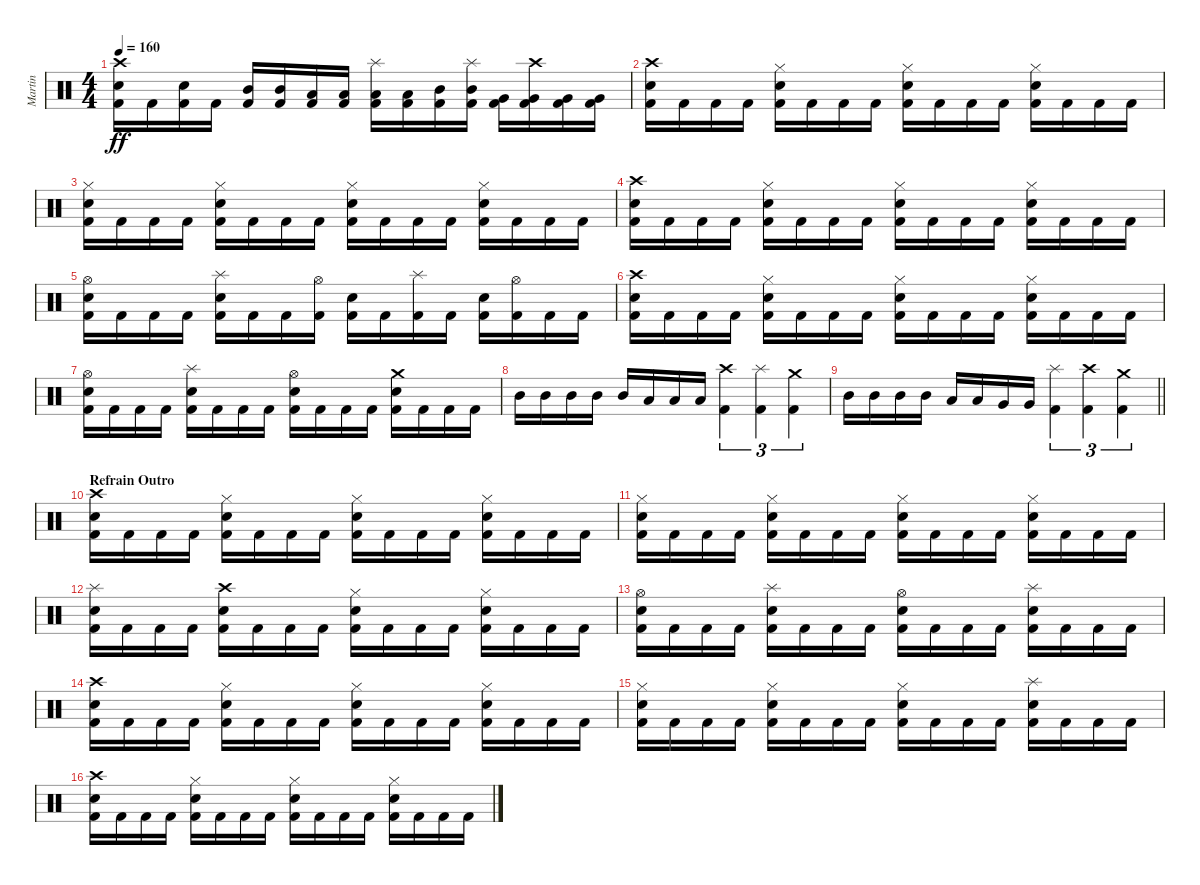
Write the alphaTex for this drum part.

\track ("Martin" "Martin") {instrument percussion}
\staff {score}
\articulation defaults
\ts (4 4)
\tempo 160
\clef neutral
\ks c
("Crash high (hit)" "Electric Snare (hit)" "Kick (hit) 2").16{dy ff} "Kick (hit) 2".16 ("Electric Snare (hit)" "Kick (hit) 2").16 "Kick (hit) 2".16 ("Mid Tom (hit)" "Kick (hit) 2").16 ("Mid Tom (hit)" "Kick (hit) 2").16 ("Low Tom (hit)" "Kick (hit) 2").16 ("Low Tom (hit)" "Kick (hit) 2").16 ("Splash (hit)" "Low Tom (hit)" "Kick (hit) 2").16 ("Low Tom (hit)" "Kick (hit) 2").16 ("Mid Tom (hit)" "Kick (hit) 2").16 ("Splash (hit)" "Mid Tom (hit)" "Kick (hit) 2").16 ("Very Low Tom (hit)" "Kick (hit) 2").16 ("Crash high (hit)" "Very Low Tom (hit)" "Kick (hit) 2").16 ("Very Low Tom (hit)" "Kick (hit) 2").16 ("Very Low Tom (hit)" "Kick (hit) 2").16 |
("Crash high (hit)" "Electric Snare (hit)" "Kick (hit) 2").16 "Kick (hit) 2".16 "Kick (hit) 2".16 "Kick (hit) 2".16 ("Hi-Hat (closed)" "Electric Snare (hit)" "Kick (hit) 2").16 "Kick (hit) 2".16 "Kick (hit) 2".16 "Kick (hit) 2".16 ("Hi-Hat (closed)" "Electric Snare (hit)" "Kick (hit) 2").16 "Kick (hit) 2".16 "Kick (hit) 2".16 "Kick (hit) 2".16 ("Hi-Hat (closed)" "Electric Snare (hit)" "Kick (hit) 2").16 "Kick (hit) 2".16 "Kick (hit) 2".16 "Kick (hit) 2".16 |
("Hi-Hat (closed)" "Electric Snare (hit)" "Kick (hit) 2").16 "Kick (hit) 2".16 "Kick (hit) 2".16 "Kick (hit) 2".16 ("Hi-Hat (closed)" "Electric Snare (hit)" "Kick (hit) 2").16 "Kick (hit) 2".16 "Kick (hit) 2".16 "Kick (hit) 2".16 ("Hi-Hat (closed)" "Electric Snare (hit)" "Kick (hit) 2").16 "Kick (hit) 2".16 "Kick (hit) 2".16 "Kick (hit) 2".16 ("Hi-Hat (closed)" "Electric Snare (hit)" "Kick (hit) 2").16 "Kick (hit) 2".16 "Kick (hit) 2".16 "Kick (hit) 2".16 |
("Crash high (hit)" "Electric Snare (hit)" "Kick (hit) 2").16 "Kick (hit) 2".16 "Kick (hit) 2".16 "Kick (hit) 2".16 ("Hi-Hat (closed)" "Electric Snare (hit)" "Kick (hit) 2").16 "Kick (hit) 2".16 "Kick (hit) 2".16 "Kick (hit) 2".16 ("Hi-Hat (closed)" "Electric Snare (hit)" "Kick (hit) 2").16 "Kick (hit) 2".16 "Kick (hit) 2".16 "Kick (hit) 2".16 ("Hi-Hat (closed)" "Electric Snare (hit)" "Kick (hit) 2").16 "Kick (hit) 2".16 "Kick (hit) 2".16 "Kick (hit) 2".16 |
("Hi-Hat (open)" "Electric Snare (hit)" "Kick (hit) 2").16 "Kick (hit) 2".16 "Kick (hit) 2".16 "Kick (hit) 2".16 ("Splash (hit)" "Electric Snare (hit)" "Kick (hit) 2").16 "Kick (hit) 2".16 "Kick (hit) 2".16 ("Hi-Hat (open)" "Kick (hit) 2").16 ("Electric Snare (hit)" "Kick (hit) 2").16 "Kick (hit) 2".16 ("Splash (hit)" "Kick (hit) 2").16 "Kick (hit) 2".16 ("Electric Snare (hit)" "Kick (hit) 2").16 ("Hi-Hat (open)" "Kick (hit) 2").16 "Kick (hit) 2".16 "Kick (hit) 2".16 |
("Crash high (hit)" "Electric Snare (hit)" "Kick (hit) 2").16 "Kick (hit) 2".16 "Kick (hit) 2".16 "Kick (hit) 2".16 ("Hi-Hat (closed)" "Electric Snare (hit)" "Kick (hit) 2").16 "Kick (hit) 2".16 "Kick (hit) 2".16 "Kick (hit) 2".16 ("Hi-Hat (closed)" "Electric Snare (hit)" "Kick (hit) 2").16 "Kick (hit) 2".16 "Kick (hit) 2".16 "Kick (hit) 2".16 ("Hi-Hat (closed)" "Electric Snare (hit)" "Kick (hit) 2").16 "Kick (hit) 2".16 "Kick (hit) 2".16 "Kick (hit) 2".16 |
("Hi-Hat (open)" "Electric Snare (hit)" "Kick (hit) 2").16 "Kick (hit) 2".16 "Kick (hit) 2".16 "Kick (hit) 2".16 ("Splash (hit)" "Electric Snare (hit)" "Kick (hit) 2").16 "Kick (hit) 2".16 "Kick (hit) 2".16 "Kick (hit) 2".16 ("Hi-Hat (open)" "Electric Snare (hit)" "Kick (hit) 2").16 "Kick (hit) 2".16 "Kick (hit) 2".16 "Kick (hit) 2".16 ("Crash medium (hit)" "Electric Snare (hit)" "Kick (hit) 2").16 "Kick (hit) 2".16 "Kick (hit) 2".16 "Kick (hit) 2".16 |
"Mid Tom (hit)".16 "Mid Tom (hit)".16 "Mid Tom (hit)".16 "Mid Tom (hit)".16 "Mid Tom (hit)".16 "Low Tom (hit)".16 "Low Tom (hit)".16 "Low Tom (hit)".16 ("Crash high (hit)" "Kick (hit) 2").4{tu (3 2)} ("Splash (hit)" "Kick (hit) 2").4{tu (3 2)} ("Crash medium (hit)" "Kick (hit) 2").4{tu (3 2)} |
\barLineRight lightlight "Mid Tom (hit)".16 "Mid Tom (hit)".16 "Mid Tom (hit)".16 "Mid Tom (hit)".16 "Low Tom (hit)".16 "Low Tom (hit)".16 "Very Low Tom (hit)".16 "Very Low Tom (hit)".16
("Splash (hit)" "Kick (hit) 2").4{tu (3 2)} ("Crash high (hit)" "Kick (hit) 2").4{tu (3 2)} ("Crash medium (hit)" "Kick (hit) 2").4{tu (3 2)} |
\section ("" "Refrain Outro")
("Crash high (hit)" "Electric Snare (hit)" "Kick (hit) 2").16 "Kick (hit) 2".16 "Kick (hit) 2".16 "Kick (hit) 2".16 ("Hi-Hat (closed)" "Electric Snare (hit)" "Kick (hit) 2").16 "Kick (hit) 2".16 "Kick (hit) 2".16 "Kick (hit) 2".16 ("Hi-Hat (closed)" "Electric Snare (hit)" "Kick (hit) 2").16 "Kick (hit) 2".16 "Kick (hit) 2".16 "Kick (hit) 2".16 ("Hi-Hat (closed)" "Electric Snare (hit)" "Kick (hit) 2").16 "Kick (hit) 2".16 "Kick (hit) 2".16 "Kick (hit) 2".16 |
("Hi-Hat (closed)" "Electric Snare (hit)" "Kick (hit) 2").16 "Kick (hit) 2".16 "Kick (hit) 2".16 "Kick (hit) 2".16 ("Hi-Hat (closed)" "Electric Snare (hit)" "Kick (hit) 2").16 "Kick (hit) 2".16 "Kick (hit) 2".16 "Kick (hit) 2".16 ("Hi-Hat (closed)" "Electric Snare (hit)" "Kick (hit) 2").16 "Kick (hit) 2".16 "Kick (hit) 2".16 "Kick (hit) 2".16 ("Hi-Hat (closed)" "Electric Snare (hit)" "Kick (hit) 2").16 "Kick (hit) 2".16 "Kick (hit) 2".16 "Kick (hit) 2".16 |
("Splash (hit)" "Electric Snare (hit)" "Kick (hit) 2").16 "Kick (hit) 2".16 "Kick (hit) 2".16 "Kick (hit) 2".16 ("Crash high (hit)" "Electric Snare (hit)" "Kick (hit) 2").16 "Kick (hit) 2".16 "Kick (hit) 2".16 "Kick (hit) 2".16 ("Hi-Hat (closed)" "Electric Snare (hit)" "Kick (hit) 2").16 "Kick (hit) 2".16 "Kick (hit) 2".16 "Kick (hit) 2".16 ("Hi-Hat (closed)" "Electric Snare (hit)" "Kick (hit) 2").16 "Kick (hit) 2".16 "Kick (hit) 2".16 "Kick (hit) 2".16 |
("Hi-Hat (open)" "Electric Snare (hit)" "Kick (hit) 2").16 "Kick (hit) 2".16 "Kick (hit) 2".16 "Kick (hit) 2".16 ("Splash (hit)" "Electric Snare (hit)" "Kick (hit) 2").16 "Kick (hit) 2".16 "Kick (hit) 2".16 "Kick (hit) 2".16 ("Hi-Hat (open)" "Electric Snare (hit)" "Kick (hit) 2").16 "Kick (hit) 2".16 "Kick (hit) 2".16 "Kick (hit) 2".16 ("Splash (hit)" "Electric Snare (hit)" "Kick (hit) 2").16 "Kick (hit) 2".16 "Kick (hit) 2".16 "Kick (hit) 2".16 |
("Crash high (hit)" "Electric Snare (hit)" "Kick (hit) 2").16 "Kick (hit) 2".16 "Kick (hit) 2".16 "Kick (hit) 2".16 ("Hi-Hat (closed)" "Electric Snare (hit)" "Kick (hit) 2").16 "Kick (hit) 2".16 "Kick (hit) 2".16 "Kick (hit) 2".16 ("Hi-Hat (closed)" "Electric Snare (hit)" "Kick (hit) 2").16 "Kick (hit) 2".16 "Kick (hit) 2".16 "Kick (hit) 2".16 ("Hi-Hat (closed)" "Electric Snare (hit)" "Kick (hit) 2").16 "Kick (hit) 2".16 "Kick (hit) 2".16 "Kick (hit) 2".16 |
("Hi-Hat (closed)" "Electric Snare (hit)" "Kick (hit) 2").16 "Kick (hit) 2".16 "Kick (hit) 2".16 "Kick (hit) 2".16 ("Hi-Hat (closed)" "Electric Snare (hit)" "Kick (hit) 2").16 "Kick (hit) 2".16 "Kick (hit) 2".16 "Kick (hit) 2".16 ("Hi-Hat (closed)" "Electric Snare (hit)" "Kick (hit) 2").16 "Kick (hit) 2".16 "Kick (hit) 2".16 "Kick (hit) 2".16 ("Splash (hit)" "Electric Snare (hit)" "Kick (hit) 2").16 "Kick (hit) 2".16 "Kick (hit) 2".16 "Kick (hit) 2".16 |
("Crash high (hit)" "Electric Snare (hit)" "Kick (hit) 2").16 "Kick (hit) 2".16 "Kick (hit) 2".16 "Kick (hit) 2".16 ("Hi-Hat (closed)" "Electric Snare (hit)" "Kick (hit) 2").16 "Kick (hit) 2".16 "Kick (hit) 2".16 "Kick (hit) 2".16 ("Hi-Hat (closed)" "Electric Snare (hit)" "Kick (hit) 2").16 "Kick (hit) 2".16 "Kick (hit) 2".16 "Kick (hit) 2".16 ("Hi-Hat (closed)" "Electric Snare (hit)" "Kick (hit) 2").16 "Kick (hit) 2".16 "Kick (hit) 2".16 "Kick (hit) 2".16
